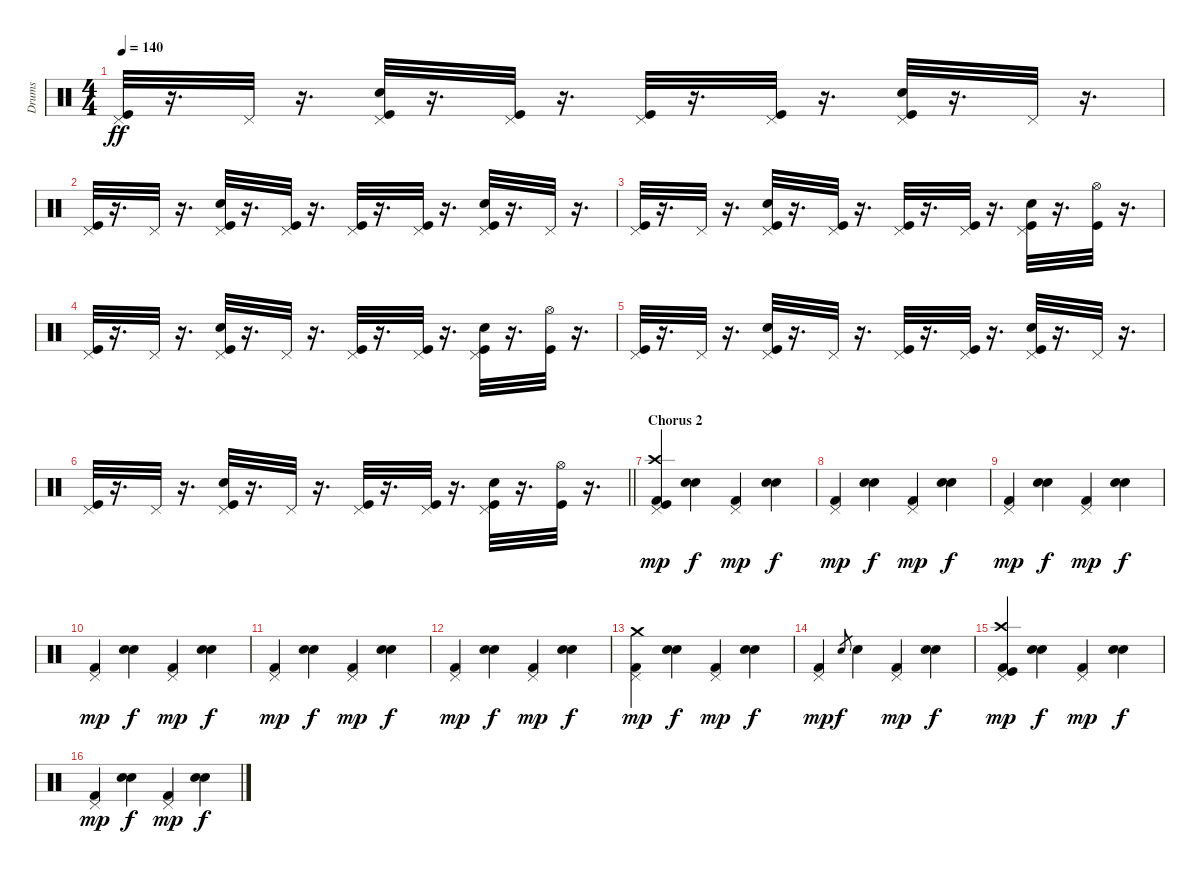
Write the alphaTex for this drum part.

\track ("Drums" "Drums") {instrument percussion}
\staff {score}
\articulation defaults
\ts (4 4)
\tempo 140
\clef neutral
\ks c
("Pedal Hi-Hat (hit)" "Kick (hit)").32{dy ff} r.16{d} "Pedal Hi-Hat (hit)".32 r.16{d} ("Kick (hit)" "Snare (hit) 2" "Pedal Hi-Hat (hit)").32 r.16{d} ("Pedal Hi-Hat (hit)" "Kick (hit)").32 r.16{d} ("Pedal Hi-Hat (hit)" "Kick (hit)").32 r.16{d} ("Pedal Hi-Hat (hit)" "Kick (hit)").32 r.16{d} ("Snare (hit) 2" "Kick (hit)" "Pedal Hi-Hat (hit)").32 r.16{d} "Pedal Hi-Hat (hit)".32 r.16{d} |
("Pedal Hi-Hat (hit)" "Kick (hit)").32 r.16{d} "Pedal Hi-Hat (hit)".32 r.16{d} ("Snare (hit) 2" "Kick (hit)" "Pedal Hi-Hat (hit)").32 r.16{d} ("Kick (hit)" "Pedal Hi-Hat (hit)").32 r.16{d} ("Pedal Hi-Hat (hit)" "Kick (hit)").32 r.16{d} ("Pedal Hi-Hat (hit)" "Kick (hit)").32 r.16{d} ("Pedal Hi-Hat (hit)" "Snare (hit) 2" "Kick (hit)").32 r.16{d} "Pedal Hi-Hat (hit)".32 r.16{d} |
("Pedal Hi-Hat (hit)" "Kick (hit)").32 r.16{d} "Pedal Hi-Hat (hit)".32 r.16{d} ("Kick (hit)" "Pedal Hi-Hat (hit)" "Snare (hit) 2").32 r.16{d} ("Pedal Hi-Hat (hit)" "Kick (hit)").32 r.16{d} ("Pedal Hi-Hat (hit)" "Kick (hit)").32 r.16{d} ("Kick (hit)" "Pedal Hi-Hat (hit)").32 r.16{d} ("Kick (hit)" "Snare (hit) 2" "Pedal Hi-Hat (hit)").32 r.16{d} ("Hi-Hat (open)" "Kick (hit)").32 r.16{d} |
("Pedal Hi-Hat (hit)" "Kick (hit)").32 r.16{d} "Pedal Hi-Hat (hit)".32 r.16{d} ("Pedal Hi-Hat (hit)" "Kick (hit)" "Snare (hit) 2").32 r.16{d} "Pedal Hi-Hat (hit)".32 r.16{d} ("Kick (hit)" "Pedal Hi-Hat (hit)").32 r.16{d} ("Kick (hit)" "Pedal Hi-Hat (hit)").32 r.16{d} ("Kick (hit)" "Snare (hit) 2" "Pedal Hi-Hat (hit)").32 r.16{d} ("Kick (hit)" "Hi-Hat (open)").32 r.16{d} |
("Kick (hit)" "Pedal Hi-Hat (hit)").32 r.16{d} "Pedal Hi-Hat (hit)".32 r.16{d} ("Pedal Hi-Hat (hit)" "Kick (hit)" "Snare (hit) 2").32 r.16{d} "Pedal Hi-Hat (hit)".32 r.16{d} ("Pedal Hi-Hat (hit)" "Kick (hit)").32 r.16{d} ("Pedal Hi-Hat (hit)" "Kick (hit)").32 r.16{d} ("Snare (hit) 2" "Kick (hit)" "Pedal Hi-Hat (hit)").32 r.16{d} "Pedal Hi-Hat (hit)".32 r.16{d} |
\barLineRight lightlight
("Pedal Hi-Hat (hit)" "Kick (hit)").32 r.16{d} "Pedal Hi-Hat (hit)".32 r.16{d} ("Pedal Hi-Hat (hit)" "Kick (hit)" "Snare (hit) 2").32 r.16{d} "Pedal Hi-Hat (hit)".32 r.16{d} ("Kick (hit)" "Pedal Hi-Hat (hit)").32 r.16{d} ("Kick (hit)" "Pedal Hi-Hat (hit)").32 r.16{d} ("Kick (hit)" "Snare (hit) 2" "Pedal Hi-Hat (hit)").32 r.16{d} ("Kick (hit)" "Hi-Hat (open)").32 r.16{d} |
\section ("" "Chorus 2")
("Pedal Hi-Hat (hit)" "Kick (hit)" "Crash high (hit)" "Kick (hit) 2").4{dy mp} ("Snare (hit) 2" "Electric Snare (hit)").4{dy f} ("Pedal Hi-Hat (hit)" "Kick (hit) 2").4{dy mp} ("Snare (hit) 2" "Electric Snare (hit)").4{dy f} |
("Pedal Hi-Hat (hit)" "Kick (hit) 2").4{dy mp} ("Snare (hit) 2" "Electric Snare (hit)").4{dy f} ("Pedal Hi-Hat (hit)" "Kick (hit) 2").4{dy mp} ("Snare (hit) 2" "Electric Snare (hit)").4{dy f} |
("Pedal Hi-Hat (hit)" "Kick (hit) 2").4{dy mp} ("Snare (hit) 2" "Electric Snare (hit)").4{dy f} ("Pedal Hi-Hat (hit)" "Kick (hit) 2").4{dy mp} ("Snare (hit) 2" "Electric Snare (hit)").4{dy f} |
("Pedal Hi-Hat (hit)" "Kick (hit) 2").4{dy mp} ("Snare (hit) 2" "Electric Snare (hit)").4{dy f} ("Pedal Hi-Hat (hit)" "Kick (hit) 2").4{dy mp} ("Snare (hit) 2" "Electric Snare (hit)").4{dy f} |
("Pedal Hi-Hat (hit)" "Kick (hit) 2").4{dy mp} ("Snare (hit) 2" "Electric Snare (hit)").4{dy f} ("Pedal Hi-Hat (hit)" "Kick (hit) 2").4{dy mp} ("Snare (hit) 2" "Electric Snare (hit)").4{dy f} |
("Pedal Hi-Hat (hit)" "Kick (hit) 2").4{dy mp} ("Snare (hit) 2" "Electric Snare (hit)").4{dy f} ("Pedal Hi-Hat (hit)" "Kick (hit) 2").4{dy mp} ("Snare (hit) 2" "Electric Snare (hit)").4{dy f} |
("Pedal Hi-Hat (hit)" "Crash medium (hit)" "Kick (hit) 2").4{dy mp} ("Snare (hit) 2" "Electric Snare (hit)").4{dy f} ("Pedal Hi-Hat (hit)" "Kick (hit) 2").4{dy mp} ("Snare (hit) 2" "Electric Snare (hit)").4{dy f} |
("Pedal Hi-Hat (hit)" "Kick (hit) 2").4{dy mp} "Snare (hit) 2".8{gr dy f} "Electric Snare (hit)".4 ("Pedal Hi-Hat (hit)" "Kick (hit) 2").4{dy mp} ("Snare (hit) 2" "Electric Snare (hit)").4{dy f} |
("Pedal Hi-Hat (hit)" "Kick (hit)" "Crash high (hit)" "Kick (hit) 2").4{dy mp} ("Snare (hit) 2" "Electric Snare (hit)").4{dy f} ("Pedal Hi-Hat (hit)" "Kick (hit) 2").4{dy mp} ("Snare (hit) 2" "Electric Snare (hit)").4{dy f} |
("Pedal Hi-Hat (hit)" "Kick (hit) 2").4{dy mp} ("Snare (hit) 2" "Electric Snare (hit)").4{dy f} ("Pedal Hi-Hat (hit)" "Kick (hit) 2").4{dy mp} ("Snare (hit) 2" "Electric Snare (hit)").4{dy f}
